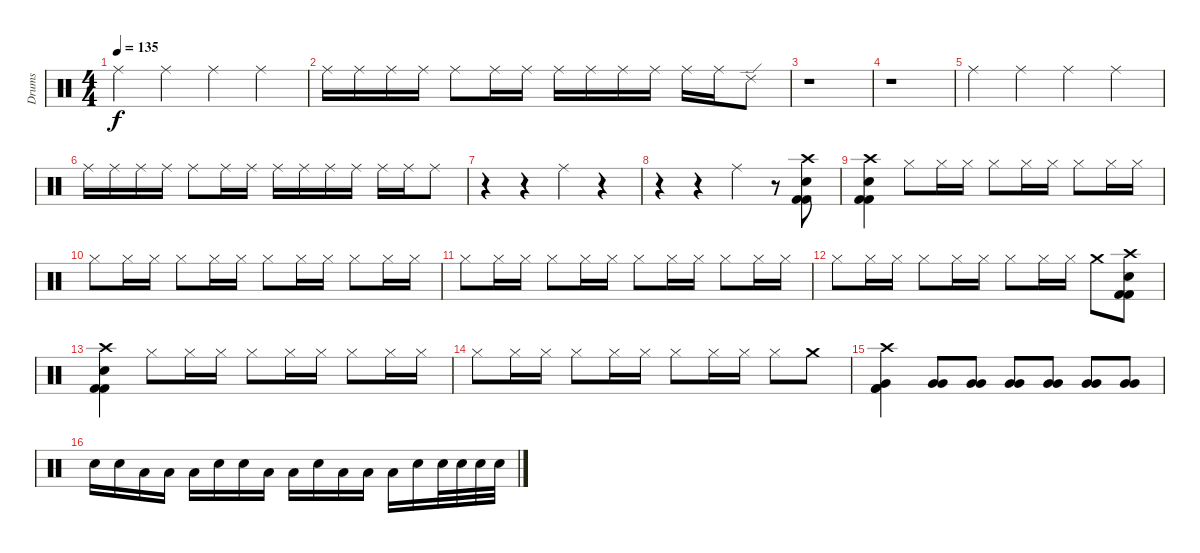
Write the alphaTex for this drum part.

\track ("Drums" "Drums") {instrument percussion}
\staff {score}
\articulation defaults
\ts (4 4)
\tempo 135
\clef neutral
\ks c "Ride (middle)".4{dy f} "Ride (middle)".4 "Ride (middle)".4 "Ride (middle)".4
|
"Ride (middle)".16 "Ride (middle)".16 "Ride (middle)".16 "Ride (middle)".16 "Ride (middle)".8 "Ride (middle)".16 "Ride (middle)".16 "Ride (middle)".16 "Ride (middle)".16 "Ride (middle)".16 "Ride (middle)".16 "Ride (middle)".16 "Ride (middle)".16 "Ride (edge) 2".8 |
r.1 |
r.1 |
"Ride (middle)".4 "Ride (middle)".4 "Ride (middle)".4 "Ride (middle)".4 |
"Ride (middle)".16 "Ride (middle)".16 "Ride (middle)".16 "Ride (middle)".16 "Ride (middle)".8 "Ride (middle)".16 "Ride (middle)".16 "Ride (middle)".16 "Ride (middle)".16 "Ride (middle)".16 "Ride (middle)".16 "Ride (middle)".16 "Ride (middle)".16 "Ride (middle)".8 |
r.4 r.4 "Ride (middle)".4 r.4 |
r.4 r.4 "Ride (middle)".4 r.8 ("Crash high (hit)" "Electric Snare (hit)" "Kick (hit) 2" "Kick (hit) 2").8 |
("Crash high (hit)" "Electric Snare (hit)" "Kick (hit) 2" "Kick (hit) 2").4 "Hi-Hat (closed)".8 "Hi-Hat (closed)".16 "Hi-Hat (closed)".16 "Hi-Hat (closed)".8 "Hi-Hat (closed)".16 "Hi-Hat (closed)".16 "Hi-Hat (closed)".8 "Hi-Hat (closed)".16 "Hi-Hat (closed)".16 |
"Hi-Hat (closed)".8 "Hi-Hat (closed)".16 "Hi-Hat (closed)".16 "Hi-Hat (closed)".8 "Hi-Hat (closed)".16 "Hi-Hat (closed)".16 "Hi-Hat (closed)".8 "Hi-Hat (closed)".16 "Hi-Hat (closed)".16 "Hi-Hat (closed)".8 "Hi-Hat (closed)".16 "Hi-Hat (closed)".16 |
"Hi-Hat (closed)".8 "Hi-Hat (closed)".16 "Hi-Hat (closed)".16 "Hi-Hat (closed)".8 "Hi-Hat (closed)".16 "Hi-Hat (closed)".16 "Hi-Hat (closed)".8 "Hi-Hat (closed)".16 "Hi-Hat (closed)".16 "Hi-Hat (closed)".8 "Hi-Hat (closed)".16 "Hi-Hat (closed)".16 |
"Hi-Hat (closed)".8 "Hi-Hat (closed)".16 "Hi-Hat (closed)".16 "Hi-Hat (closed)".8 "Hi-Hat (closed)".16 "Hi-Hat (closed)".16 "Hi-Hat (closed)".8 "Hi-Hat (closed)".16 "Hi-Hat (closed)".16 "Crash medium (hit)".8 ("Crash high (hit)" "Electric Snare (hit)" "Kick (hit) 2" "Kick (hit) 2").8 |
("Crash high (hit)" "Electric Snare (hit)" "Kick (hit) 2" "Kick (hit) 2").4 "Hi-Hat (closed)".8 "Hi-Hat (closed)".16 "Hi-Hat (closed)".16 "Hi-Hat (closed)".8 "Hi-Hat (closed)".16 "Hi-Hat (closed)".16 "Hi-Hat (closed)".8 "Hi-Hat (closed)".16 "Hi-Hat (closed)".16 |
"Hi-Hat (closed)".8 "Hi-Hat (closed)".16 "Hi-Hat (closed)".16 "Hi-Hat (closed)".8 "Hi-Hat (closed)".16 "Hi-Hat (closed)".16 "Hi-Hat (closed)".8 "Hi-Hat (closed)".16 "Hi-Hat (closed)".16 "Hi-Hat (closed)".8 "Crash medium (hit)".8 |
("Crash high (hit)" "Very Low Tom (hit)" "Kick (hit) 2" "Kick (hit) 2").4 ("Very Low Tom (hit)" "Very Low Tom (hit)").8 ("Very Low Tom (hit)" "Very Low Tom (hit)").8 ("Very Low Tom (hit)" "Very Low Tom (hit)").8 ("Very Low Tom (hit)" "Very Low Tom (hit)").8 ("Very Low Tom (hit)" "Very Low Tom (hit)").8 ("Very Low Tom (hit)" "Very Low Tom (hit)").8 |
"Electric Snare (hit)".16 "Electric Snare (hit)".16 "Low Floor Tom (hit)".16 "Low Floor Tom (hit)".16 "Low Floor Tom (hit)".16 "Electric Snare (hit)".16 "Electric Snare (hit)".16 "Low Floor Tom (hit)".16 "Low Floor Tom (hit)".16 "Electric Snare (hit)".16 "Low Floor Tom (hit)".16 "Low Floor Tom (hit)".16 "Low Floor Tom (hit)".16 "Electric Snare (hit)".16 "Electric Snare (hit)".32 "Electric Snare (hit)".32 "Electric Snare (hit)".32 "Electric Snare (hit)".32
